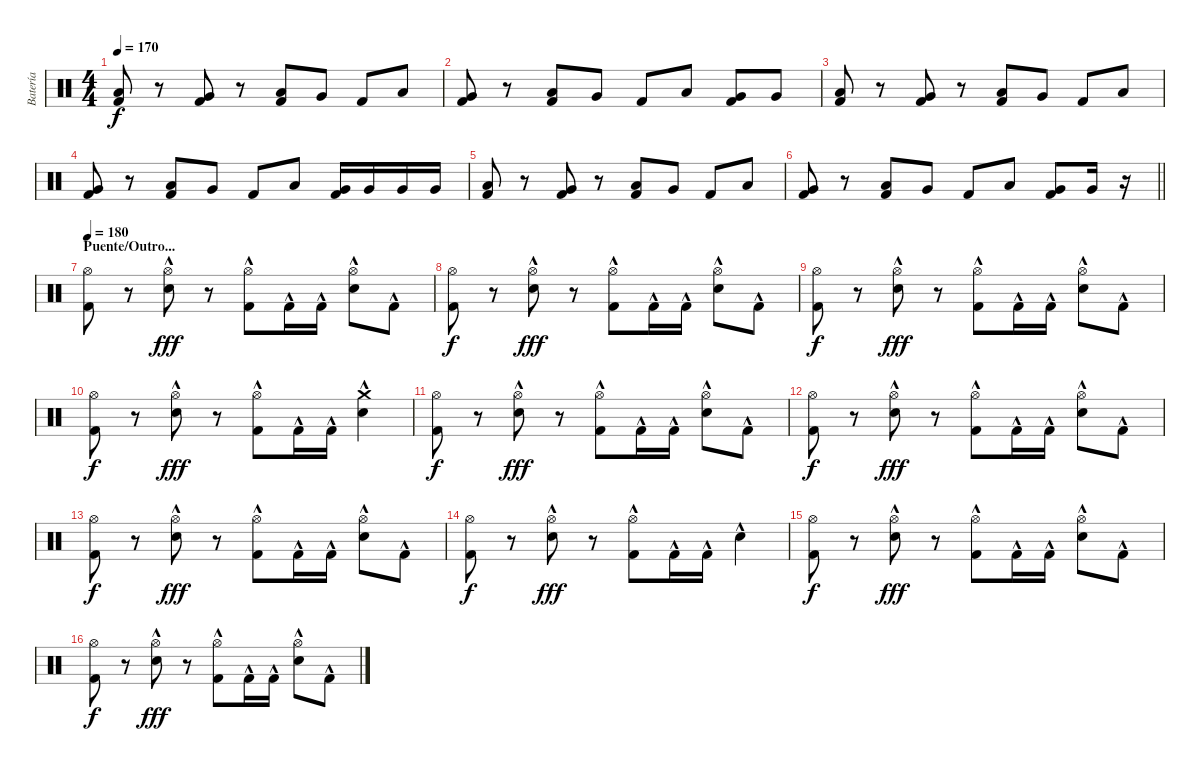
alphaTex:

\track ("Batería" "Batería") {instrument percussion}
\staff {score}
\articulation defaults
\ts (4 4)
\tempo 170
\clef neutral
\ks c
("Low Floor Tom (hit)" "Kick (hit) 2").8{dy f} r.8 ("Very Low Tom (hit)" "Kick (hit) 2").8 r.8 ("Low Floor Tom (hit)" "Kick (hit) 2").8 "Very Low Tom (hit)".8 "Kick (hit) 2".8 "Low Floor Tom (hit)".8 |
("Very Low Tom (hit)" "Kick (hit) 2").8 r.8 ("Low Floor Tom (hit)" "Kick (hit) 2").8 "Very Low Tom (hit)".8 "Kick (hit) 2".8 "Low Floor Tom (hit)".8 ("Very Low Tom (hit)" "Kick (hit) 2").8 "Very Low Tom (hit)".8 |
("Low Floor Tom (hit)" "Kick (hit) 2").8 r.8 ("Very Low Tom (hit)" "Kick (hit) 2").8 r.8 ("Low Floor Tom (hit)" "Kick (hit) 2").8 "Very Low Tom (hit)".8 "Kick (hit) 2".8 "Low Floor Tom (hit)".8 |
("Very Low Tom (hit)" "Kick (hit) 2").8 r.8 ("Low Floor Tom (hit)" "Kick (hit) 2").8 "Very Low Tom (hit)".8 "Kick (hit) 2".8 "Low Floor Tom (hit)".8 ("Very Low Tom (hit)" "Kick (hit) 2").16 "Very Low Tom (hit)".16 "Very Low Tom (hit)".16 "Very Low Tom (hit)".16 |
("Low Floor Tom (hit)" "Kick (hit) 2").8 r.8 ("Very Low Tom (hit)" "Kick (hit) 2").8 r.8 ("Low Floor Tom (hit)" "Kick (hit) 2").8 "Very Low Tom (hit)".8 "Kick (hit) 2".8 "Low Floor Tom (hit)".8 |
\barLineRight lightlight
("Very Low Tom (hit)" "Kick (hit) 2").8 r.8 ("Low Floor Tom (hit)" "Kick (hit) 2").8 "Very Low Tom (hit)".8 "Kick (hit) 2".8 "Low Floor Tom (hit)".8 ("Very Low Tom (hit)" "Kick (hit) 2").8 "Very Low Tom (hit)".16 r.16 |
\section ("" "Puente/Outro...")
\tempo 180
("Hi-Hat (open)" "Kick (hit) 2").8 r.8 ("Snare (hit) 2"{hac} "Hi-Hat (open)").8{dy fff} r.8 ("Hi-Hat (open)" "Kick (hit) 2"{hac}).8 "Kick (hit) 2"{hac}.16 "Kick (hit) 2"{hac}.16 ("Snare (hit) 2"{hac} "Hi-Hat (open)").8 "Kick (hit) 2"{hac}.8 |
("Hi-Hat (open)" "Kick (hit) 2").8{dy f} r.8 ("Snare (hit) 2"{hac} "Hi-Hat (open)").8{dy fff} r.8 ("Hi-Hat (open)" "Kick (hit) 2"{hac}).8 "Kick (hit) 2"{hac}.16 "Kick (hit) 2"{hac}.16 ("Snare (hit) 2"{hac} "Hi-Hat (open)").8 "Kick (hit) 2"{hac}.8 |
("Hi-Hat (open)" "Kick (hit) 2").8{dy f} r.8 ("Snare (hit) 2"{hac} "Hi-Hat (open)").8{dy fff} r.8 ("Hi-Hat (open)" "Kick (hit) 2"{hac}).8 "Kick (hit) 2"{hac}.16 "Kick (hit) 2"{hac}.16 ("Snare (hit) 2"{hac} "Hi-Hat (open)").8 "Kick (hit) 2"{hac}.8 |
("Hi-Hat (open)" "Kick (hit) 2").8{dy f} r.8 ("Snare (hit) 2"{hac} "Hi-Hat (open)").8{dy fff} r.8 ("Hi-Hat (open)" "Kick (hit) 2"{hac}).8 "Kick (hit) 2"{hac}.16 "Kick (hit) 2"{hac}.16 ("Crash medium (hit)"{hac} "Snare (hit) 2"{hac}).4 |
("Hi-Hat (open)" "Kick (hit) 2").8{dy f} r.8 ("Snare (hit) 2"{hac} "Hi-Hat (open)").8{dy fff} r.8 ("Hi-Hat (open)" "Kick (hit) 2"{hac}).8 "Kick (hit) 2"{hac}.16 "Kick (hit) 2"{hac}.16 ("Snare (hit) 2"{hac} "Hi-Hat (open)").8 "Kick (hit) 2"{hac}.8 |
("Hi-Hat (open)" "Kick (hit) 2").8{dy f} r.8 ("Snare (hit) 2"{hac} "Hi-Hat (open)").8{dy fff} r.8 ("Hi-Hat (open)" "Kick (hit) 2"{hac}).8 "Kick (hit) 2"{hac}.16 "Kick (hit) 2"{hac}.16 ("Snare (hit) 2"{hac} "Hi-Hat (open)").8 "Kick (hit) 2"{hac}.8 |
("Hi-Hat (open)" "Kick (hit) 2").8{dy f} r.8 ("Snare (hit) 2"{hac} "Hi-Hat (open)").8{dy fff} r.8 ("Hi-Hat (open)" "Kick (hit) 2"{hac}).8 "Kick (hit) 2"{hac}.16 "Kick (hit) 2"{hac}.16 ("Snare (hit) 2"{hac} "Hi-Hat (open)").8 "Kick (hit) 2"{hac}.8 |
("Hi-Hat (open)" "Kick (hit) 2").8{dy f} r.8 ("Snare (hit) 2"{hac} "Hi-Hat (open)").8{dy fff} r.8 ("Hi-Hat (open)" "Kick (hit) 2"{hac}).8 "Kick (hit) 2"{hac}.16 "Kick (hit) 2"{hac}.16 "Snare (hit) 2"{hac}.4 |
("Hi-Hat (open)" "Kick (hit) 2").8{dy f} r.8 ("Snare (hit) 2"{hac} "Hi-Hat (open)").8{dy fff} r.8 ("Hi-Hat (open)" "Kick (hit) 2"{hac}).8 "Kick (hit) 2"{hac}.16 "Kick (hit) 2"{hac}.16 ("Snare (hit) 2"{hac} "Hi-Hat (open)").8 "Kick (hit) 2"{hac}.8 |
("Hi-Hat (open)" "Kick (hit) 2").8{dy f} r.8 ("Snare (hit) 2"{hac} "Hi-Hat (open)").8{dy fff} r.8 ("Hi-Hat (open)" "Kick (hit) 2"{hac}).8 "Kick (hit) 2"{hac}.16 "Kick (hit) 2"{hac}.16 ("Snare (hit) 2"{hac} "Hi-Hat (open)").8 "Kick (hit) 2"{hac}.8
